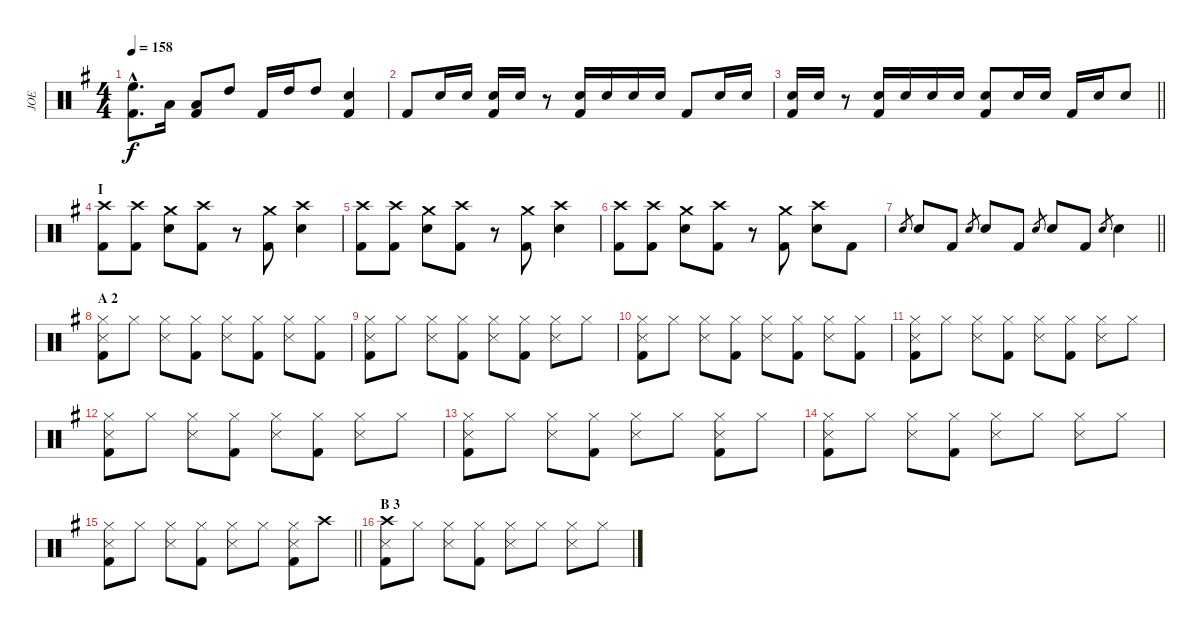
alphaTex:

\track ("JOE" "JOE") {instrument percussion}
\staff {score}
\articulation defaults
\ts (4 4)
\tempo 158
\clef neutral
\ks g
("High Floor Tom (hit)"{hac} "Kick (hit) 2"{hac}).8{d dy f} "Low Tom (hit)".16 ("Low Tom (hit)" "Kick (hit) 2").8 "High Tom (hit)".8 "Kick (hit) 2".16 "High Tom (hit)".16 "High Tom (hit)".8 ("Snare (hit) 2" "Kick (hit) 2").4 |
"Kick (hit) 2".8 "Snare (hit) 2".16 "Snare (hit) 2".16 ("Kick (hit) 2" "Snare (hit) 2").16 "Snare (hit) 2".16 r.8 ("Kick (hit) 2" "Snare (hit) 2").16 "Snare (hit) 2".16 "Snare (hit) 2".16 "Snare (hit) 2".16 "Kick (hit) 2".8 "Snare (hit) 2".16 "Snare (hit) 2".16 |
\barLineRight lightlight
("Kick (hit) 2" "Snare (hit) 2").16 "Snare (hit) 2".16 r.8 ("Kick (hit) 2" "Snare (hit) 2").16 "Snare (hit) 2".16 "Snare (hit) 2".16 "Snare (hit) 2".16 ("Kick (hit) 2" "Snare (hit) 2").8 "Snare (hit) 2".16 "Snare (hit) 2".16 "Kick (hit) 2".16 "Snare (hit) 2".16 "Snare (hit) 2".8 |
\section ("" "I")
("Crash high (hit)" "Kick (hit) 2").8 ("Crash high (hit)" "Kick (hit) 2").8 ("Crash medium (hit)" "Snare (hit) 2").8 ("Crash high (hit)" "Kick (hit) 2").8 r.8 ("Crash medium (hit)" "Kick (hit) 2").8 ("Crash high (hit)" "Snare (hit) 2").4 |
("Crash high (hit)" "Kick (hit) 2").8 ("Crash high (hit)" "Kick (hit) 2").8 ("Crash medium (hit)" "Snare (hit) 2").8 ("Crash high (hit)" "Kick (hit) 2").8 r.8 ("Crash medium (hit)" "Kick (hit) 2").8 ("Crash high (hit)" "Snare (hit) 2").4 |
("Crash high (hit)" "Kick (hit) 2").8 ("Crash high (hit)" "Kick (hit) 2").8 ("Crash medium (hit)" "Snare (hit) 2").8 ("Crash high (hit)" "Kick (hit) 2").8 r.8 ("Crash medium (hit)" "Kick (hit) 2").8 ("Crash high (hit)" "Snare (hit) 2").8 "Kick (hit) 2".8 |
\barLineRight lightlight "Snare (hit) 2".8{gr} "Snare (hit) 2".8 "Kick (hit) 2".8 "Snare (hit) 2".8{gr} "Snare (hit) 2".8 "Kick (hit) 2".8 "Snare (hit) 2".8{gr} "Snare (hit) 2".8 "Kick (hit) 2".8 "Snare (hit) 2".8{gr} "Snare (hit) 2".4
|
\section ("" "A 2")
("Hi-Hat (closed)" "Kick (hit) 2" "Snare (side stick) 3").8 "Hi-Hat (closed)".8 ("Hi-Hat (closed)" "Snare (side stick) 3").8 ("Hi-Hat (closed)" "Kick (hit) 2").8 ("Hi-Hat (closed)" "Snare (side stick) 3").8 ("Hi-Hat (closed)" "Kick (hit) 2").8 ("Hi-Hat (closed)" "Snare (side stick) 3").8 ("Hi-Hat (closed)" "Kick (hit) 2").8 |
("Hi-Hat (closed)" "Kick (hit) 2" "Snare (side stick) 3").8 "Hi-Hat (closed)".8 ("Hi-Hat (closed)" "Snare (side stick) 3").8 ("Hi-Hat (closed)" "Kick (hit) 2").8 ("Hi-Hat (closed)" "Snare (side stick) 3").8 ("Hi-Hat (closed)" "Kick (hit) 2").8 ("Hi-Hat (closed)" "Snare (side stick) 3").8 "Hi-Hat (closed)".8 |
("Hi-Hat (closed)" "Kick (hit) 2" "Snare (side stick) 3").8 "Hi-Hat (closed)".8 ("Hi-Hat (closed)" "Snare (side stick) 3").8 ("Hi-Hat (closed)" "Kick (hit) 2").8 ("Hi-Hat (closed)" "Snare (side stick) 3").8 ("Hi-Hat (closed)" "Kick (hit) 2").8 ("Hi-Hat (closed)" "Snare (side stick) 3").8 ("Hi-Hat (closed)" "Kick (hit) 2").8 |
("Hi-Hat (closed)" "Kick (hit) 2" "Snare (side stick) 3").8 "Hi-Hat (closed)".8 ("Hi-Hat (closed)" "Snare (side stick) 3").8 ("Hi-Hat (closed)" "Kick (hit) 2").8 ("Hi-Hat (closed)" "Snare (side stick) 3").8 ("Hi-Hat (closed)" "Kick (hit) 2").8 ("Hi-Hat (closed)" "Snare (side stick) 3").8 "Hi-Hat (closed)".8 |
("Hi-Hat (closed)" "Kick (hit) 2" "Snare (side stick) 3").8 "Hi-Hat (closed)".8 ("Hi-Hat (closed)" "Snare (side stick) 3").8 ("Hi-Hat (closed)" "Kick (hit) 2").8 ("Hi-Hat (closed)" "Snare (side stick) 3").8 ("Hi-Hat (closed)" "Kick (hit) 2").8 ("Hi-Hat (closed)" "Snare (side stick) 3").8 "Hi-Hat (closed)".8 |
("Hi-Hat (closed)" "Kick (hit) 2" "Snare (side stick) 3").8 "Hi-Hat (closed)".8 ("Hi-Hat (closed)" "Snare (side stick) 3").8 ("Hi-Hat (closed)" "Kick (hit) 2").8 ("Hi-Hat (closed)" "Snare (side stick) 3").8 "Hi-Hat (closed)".8 ("Hi-Hat (closed)" "Snare (side stick) 3" "Kick (hit) 2").8 "Hi-Hat (closed)".8 |
("Hi-Hat (closed)" "Kick (hit) 2" "Snare (side stick) 3").8 "Hi-Hat (closed)".8 ("Hi-Hat (closed)" "Snare (side stick) 3").8 ("Hi-Hat (closed)" "Kick (hit) 2").8 ("Hi-Hat (closed)" "Snare (side stick) 3").8 "Hi-Hat (closed)".8 ("Hi-Hat (closed)" "Snare (side stick) 3").8 "Hi-Hat (closed)".8 |
\barLineRight lightlight
("Hi-Hat (closed)" "Kick (hit) 2" "Snare (side stick) 3").8 "Hi-Hat (closed)".8 ("Hi-Hat (closed)" "Snare (side stick) 3").8 ("Hi-Hat (closed)" "Kick (hit) 2").8 ("Hi-Hat (closed)" "Snare (side stick) 3").8 "Hi-Hat (closed)".8 ("Hi-Hat (closed)" "Snare (side stick) 3" "Kick (hit) 2").8 "Crash high (hit)".8 |
\section ("" "B 3")
("Crash high (hit)" "Kick (hit) 2" "Snare (side stick) 3").8 "Hi-Hat (closed)".8 ("Hi-Hat (closed)" "Snare (side stick) 3").8 ("Hi-Hat (closed)" "Kick (hit) 2").8 ("Hi-Hat (closed)" "Snare (side stick) 3").8 "Hi-Hat (closed)".8 ("Hi-Hat (closed)" "Snare (side stick) 3").8 "Hi-Hat (closed)".8
